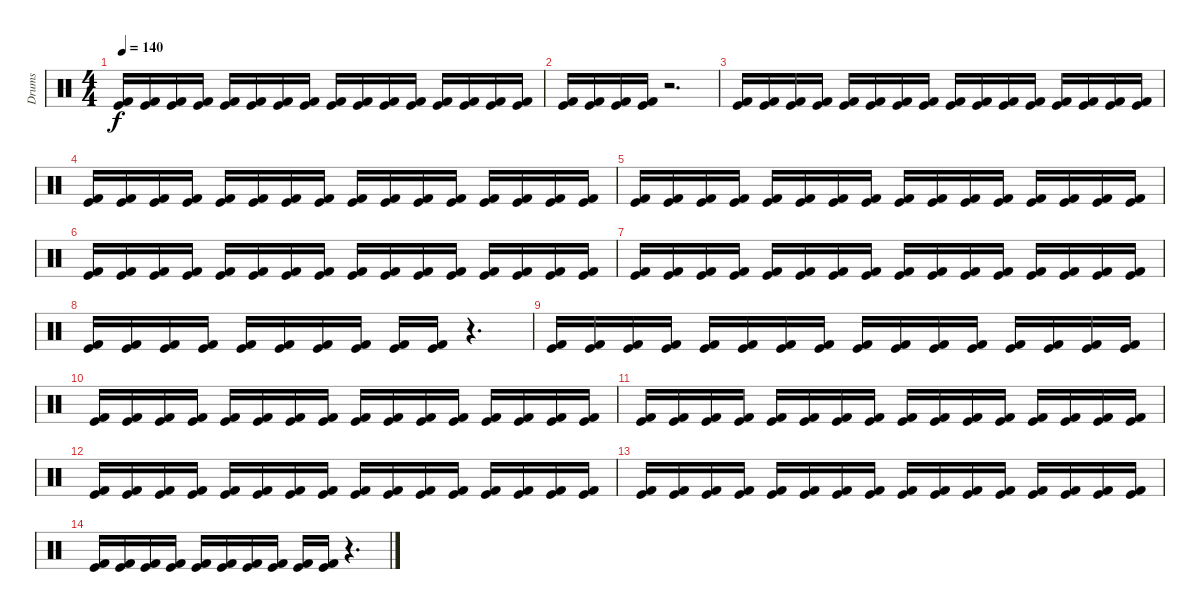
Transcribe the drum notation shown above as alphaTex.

\track ("Drums" "Drums") {instrument percussion}
\staff {score}
\articulation defaults
\ts (4 4)
\tempo 140
\clef neutral
\ks c
("Kick (hit) 2" "Kick (hit)").16{dy f} ("Kick (hit) 2" "Kick (hit)").16 ("Kick (hit) 2" "Kick (hit)").16 ("Kick (hit) 2" "Kick (hit)").16 ("Kick (hit) 2" "Kick (hit)").16 ("Kick (hit) 2" "Kick (hit)").16 ("Kick (hit) 2" "Kick (hit)").16 ("Kick (hit) 2" "Kick (hit)").16 ("Kick (hit) 2" "Kick (hit)").16 ("Kick (hit) 2" "Kick (hit)").16 ("Kick (hit) 2" "Kick (hit)").16 ("Kick (hit) 2" "Kick (hit)").16 ("Kick (hit) 2" "Kick (hit)").16 ("Kick (hit) 2" "Kick (hit)").16 ("Kick (hit) 2" "Kick (hit)").16 ("Kick (hit) 2" "Kick (hit)").16 |
("Kick (hit) 2" "Kick (hit)").16 ("Kick (hit) 2" "Kick (hit)").16 ("Kick (hit) 2" "Kick (hit)").16 ("Kick (hit) 2" "Kick (hit)").16 r.2{d} |
("Kick (hit) 2" "Kick (hit)").16 ("Kick (hit) 2" "Kick (hit)").16 ("Kick (hit) 2" "Kick (hit)").16 ("Kick (hit) 2" "Kick (hit)").16 ("Kick (hit) 2" "Kick (hit)").16 ("Kick (hit) 2" "Kick (hit)").16 ("Kick (hit) 2" "Kick (hit)").16 ("Kick (hit) 2" "Kick (hit)").16 ("Kick (hit) 2" "Kick (hit)").16 ("Kick (hit) 2" "Kick (hit)").16 ("Kick (hit) 2" "Kick (hit)").16 ("Kick (hit) 2" "Kick (hit)").16 ("Kick (hit) 2" "Kick (hit)").16 ("Kick (hit) 2" "Kick (hit)").16 ("Kick (hit) 2" "Kick (hit)").16 ("Kick (hit) 2" "Kick (hit)").16 |
("Kick (hit) 2" "Kick (hit)").16 ("Kick (hit) 2" "Kick (hit)").16 ("Kick (hit) 2" "Kick (hit)").16 ("Kick (hit) 2" "Kick (hit)").16 ("Kick (hit) 2" "Kick (hit)").16 ("Kick (hit) 2" "Kick (hit)").16 ("Kick (hit) 2" "Kick (hit)").16 ("Kick (hit) 2" "Kick (hit)").16 ("Kick (hit) 2" "Kick (hit)").16 ("Kick (hit) 2" "Kick (hit)").16 ("Kick (hit) 2" "Kick (hit)").16 ("Kick (hit) 2" "Kick (hit)").16 ("Kick (hit) 2" "Kick (hit)").16 ("Kick (hit) 2" "Kick (hit)").16 ("Kick (hit) 2" "Kick (hit)").16 ("Kick (hit) 2" "Kick (hit)").16 |
("Kick (hit) 2" "Kick (hit)").16 ("Kick (hit) 2" "Kick (hit)").16 ("Kick (hit) 2" "Kick (hit)").16 ("Kick (hit) 2" "Kick (hit)").16 ("Kick (hit) 2" "Kick (hit)").16 ("Kick (hit) 2" "Kick (hit)").16 ("Kick (hit) 2" "Kick (hit)").16 ("Kick (hit) 2" "Kick (hit)").16 ("Kick (hit) 2" "Kick (hit)").16 ("Kick (hit) 2" "Kick (hit)").16 ("Kick (hit) 2" "Kick (hit)").16 ("Kick (hit) 2" "Kick (hit)").16 ("Kick (hit) 2" "Kick (hit)").16 ("Kick (hit) 2" "Kick (hit)").16 ("Kick (hit) 2" "Kick (hit)").16 ("Kick (hit) 2" "Kick (hit)").16 |
("Kick (hit) 2" "Kick (hit)").16 ("Kick (hit) 2" "Kick (hit)").16 ("Kick (hit) 2" "Kick (hit)").16 ("Kick (hit) 2" "Kick (hit)").16 ("Kick (hit) 2" "Kick (hit)").16 ("Kick (hit) 2" "Kick (hit)").16 ("Kick (hit) 2" "Kick (hit)").16 ("Kick (hit) 2" "Kick (hit)").16 ("Kick (hit) 2" "Kick (hit)").16 ("Kick (hit) 2" "Kick (hit)").16 ("Kick (hit) 2" "Kick (hit)").16 ("Kick (hit) 2" "Kick (hit)").16 ("Kick (hit) 2" "Kick (hit)").16 ("Kick (hit) 2" "Kick (hit)").16 ("Kick (hit) 2" "Kick (hit)").16 ("Kick (hit) 2" "Kick (hit)").16 |
("Kick (hit) 2" "Kick (hit)").16 ("Kick (hit) 2" "Kick (hit)").16 ("Kick (hit) 2" "Kick (hit)").16 ("Kick (hit) 2" "Kick (hit)").16 ("Kick (hit) 2" "Kick (hit)").16 ("Kick (hit) 2" "Kick (hit)").16 ("Kick (hit) 2" "Kick (hit)").16 ("Kick (hit) 2" "Kick (hit)").16 ("Kick (hit) 2" "Kick (hit)").16 ("Kick (hit) 2" "Kick (hit)").16 ("Kick (hit) 2" "Kick (hit)").16 ("Kick (hit) 2" "Kick (hit)").16 ("Kick (hit) 2" "Kick (hit)").16 ("Kick (hit) 2" "Kick (hit)").16 ("Kick (hit) 2" "Kick (hit)").16 ("Kick (hit) 2" "Kick (hit)").16 |
("Kick (hit) 2" "Kick (hit)").16 ("Kick (hit) 2" "Kick (hit)").16 ("Kick (hit) 2" "Kick (hit)").16 ("Kick (hit) 2" "Kick (hit)").16 ("Kick (hit) 2" "Kick (hit)").16 ("Kick (hit) 2" "Kick (hit)").16 ("Kick (hit) 2" "Kick (hit)").16 ("Kick (hit) 2" "Kick (hit)").16 ("Kick (hit) 2" "Kick (hit)").16 ("Kick (hit) 2" "Kick (hit)").16 r.4{d} |
("Kick (hit) 2" "Kick (hit)").16 ("Kick (hit) 2" "Kick (hit)").16 ("Kick (hit) 2" "Kick (hit)").16 ("Kick (hit) 2" "Kick (hit)").16 ("Kick (hit) 2" "Kick (hit)").16 ("Kick (hit) 2" "Kick (hit)").16 ("Kick (hit) 2" "Kick (hit)").16 ("Kick (hit) 2" "Kick (hit)").16 ("Kick (hit) 2" "Kick (hit)").16 ("Kick (hit) 2" "Kick (hit)").16 ("Kick (hit) 2" "Kick (hit)").16 ("Kick (hit) 2" "Kick (hit)").16 ("Kick (hit) 2" "Kick (hit)").16 ("Kick (hit) 2" "Kick (hit)").16 ("Kick (hit) 2" "Kick (hit)").16 ("Kick (hit) 2" "Kick (hit)").16 |
("Kick (hit) 2" "Kick (hit)").16 ("Kick (hit) 2" "Kick (hit)").16 ("Kick (hit) 2" "Kick (hit)").16 ("Kick (hit) 2" "Kick (hit)").16 ("Kick (hit) 2" "Kick (hit)").16 ("Kick (hit) 2" "Kick (hit)").16 ("Kick (hit) 2" "Kick (hit)").16 ("Kick (hit) 2" "Kick (hit)").16 ("Kick (hit) 2" "Kick (hit)").16 ("Kick (hit) 2" "Kick (hit)").16 ("Kick (hit) 2" "Kick (hit)").16 ("Kick (hit) 2" "Kick (hit)").16 ("Kick (hit) 2" "Kick (hit)").16 ("Kick (hit) 2" "Kick (hit)").16 ("Kick (hit) 2" "Kick (hit)").16 ("Kick (hit) 2" "Kick (hit)").16 |
("Kick (hit) 2" "Kick (hit)").16 ("Kick (hit) 2" "Kick (hit)").16 ("Kick (hit) 2" "Kick (hit)").16 ("Kick (hit) 2" "Kick (hit)").16 ("Kick (hit) 2" "Kick (hit)").16 ("Kick (hit) 2" "Kick (hit)").16 ("Kick (hit) 2" "Kick (hit)").16 ("Kick (hit) 2" "Kick (hit)").16 ("Kick (hit) 2" "Kick (hit)").16 ("Kick (hit) 2" "Kick (hit)").16 ("Kick (hit) 2" "Kick (hit)").16 ("Kick (hit) 2" "Kick (hit)").16 ("Kick (hit) 2" "Kick (hit)").16 ("Kick (hit) 2" "Kick (hit)").16 ("Kick (hit) 2" "Kick (hit)").16 ("Kick (hit) 2" "Kick (hit)").16 |
("Kick (hit) 2" "Kick (hit)").16 ("Kick (hit) 2" "Kick (hit)").16 ("Kick (hit) 2" "Kick (hit)").16 ("Kick (hit) 2" "Kick (hit)").16 ("Kick (hit) 2" "Kick (hit)").16 ("Kick (hit) 2" "Kick (hit)").16 ("Kick (hit) 2" "Kick (hit)").16 ("Kick (hit) 2" "Kick (hit)").16 ("Kick (hit) 2" "Kick (hit)").16 ("Kick (hit) 2" "Kick (hit)").16 ("Kick (hit) 2" "Kick (hit)").16 ("Kick (hit) 2" "Kick (hit)").16 ("Kick (hit) 2" "Kick (hit)").16 ("Kick (hit) 2" "Kick (hit)").16 ("Kick (hit) 2" "Kick (hit)").16 ("Kick (hit) 2" "Kick (hit)").16 |
("Kick (hit) 2" "Kick (hit)").16 ("Kick (hit) 2" "Kick (hit)").16 ("Kick (hit) 2" "Kick (hit)").16 ("Kick (hit) 2" "Kick (hit)").16 ("Kick (hit) 2" "Kick (hit)").16 ("Kick (hit) 2" "Kick (hit)").16 ("Kick (hit) 2" "Kick (hit)").16 ("Kick (hit) 2" "Kick (hit)").16 ("Kick (hit) 2" "Kick (hit)").16 ("Kick (hit) 2" "Kick (hit)").16 ("Kick (hit) 2" "Kick (hit)").16 ("Kick (hit) 2" "Kick (hit)").16 ("Kick (hit) 2" "Kick (hit)").16 ("Kick (hit) 2" "Kick (hit)").16 ("Kick (hit) 2" "Kick (hit)").16 ("Kick (hit) 2" "Kick (hit)").16 |
("Kick (hit) 2" "Kick (hit)").16 ("Kick (hit) 2" "Kick (hit)").16 ("Kick (hit) 2" "Kick (hit)").16 ("Kick (hit) 2" "Kick (hit)").16 ("Kick (hit) 2" "Kick (hit)").16 ("Kick (hit) 2" "Kick (hit)").16 ("Kick (hit) 2" "Kick (hit)").16 ("Kick (hit) 2" "Kick (hit)").16 ("Kick (hit) 2" "Kick (hit)").16 ("Kick (hit) 2" "Kick (hit)").16 r.4{d}
